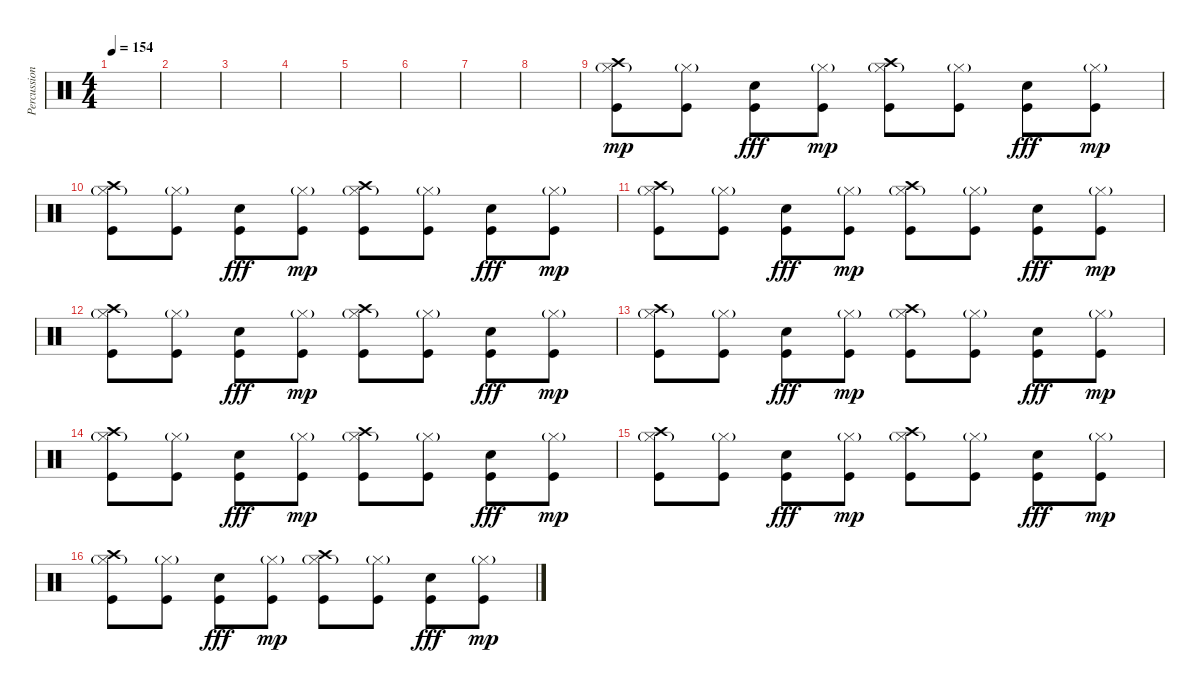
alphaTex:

\track ("Percussion" "Percussion") {instrument percussion}
\staff {score}
\articulation defaults
\ts (4 4)
\tempo 154
\clef neutral
\ks c
|
|
|
|
|
|
|
|
("Kick (hit)" "Hi-Hat (closed)"{g} "Crash high (hit)").8{dy mp} ("Kick (hit)" "Hi-Hat (closed)"{g}).8 ("Kick (hit)" "Electric Snare (hit)").8{dy fff} ("Kick (hit)" "Hi-Hat (closed)"{g}).8{dy mp} ("Kick (hit)" "Hi-Hat (closed)"{g} "Crash high (hit)").8 ("Kick (hit)" "Hi-Hat (closed)"{g}).8 ("Kick (hit)" "Electric Snare (hit)").8{dy fff} ("Kick (hit)" "Hi-Hat (closed)"{g}).8{dy mp} |
("Kick (hit)" "Hi-Hat (closed)"{g} "Crash high (hit)").8 ("Kick (hit)" "Hi-Hat (closed)"{g}).8 ("Kick (hit)" "Electric Snare (hit)").8{dy fff} ("Kick (hit)" "Hi-Hat (closed)"{g}).8{dy mp} ("Kick (hit)" "Hi-Hat (closed)"{g} "Crash high (hit)").8 ("Kick (hit)" "Hi-Hat (closed)"{g}).8 ("Kick (hit)" "Electric Snare (hit)").8{dy fff} ("Kick (hit)" "Hi-Hat (closed)"{g}).8{dy mp} |
("Kick (hit)" "Hi-Hat (closed)"{g} "Crash high (hit)").8 ("Kick (hit)" "Hi-Hat (closed)"{g}).8 ("Kick (hit)" "Electric Snare (hit)").8{dy fff} ("Kick (hit)" "Hi-Hat (closed)"{g}).8{dy mp} ("Kick (hit)" "Hi-Hat (closed)"{g} "Crash high (hit)").8 ("Kick (hit)" "Hi-Hat (closed)"{g}).8 ("Kick (hit)" "Electric Snare (hit)").8{dy fff} ("Kick (hit)" "Hi-Hat (closed)"{g}).8{dy mp} |
("Kick (hit)" "Hi-Hat (closed)"{g} "Crash high (hit)").8 ("Kick (hit)" "Hi-Hat (closed)"{g}).8 ("Kick (hit)" "Electric Snare (hit)").8{dy fff} ("Kick (hit)" "Hi-Hat (closed)"{g}).8{dy mp} ("Kick (hit)" "Hi-Hat (closed)"{g} "Crash high (hit)").8 ("Kick (hit)" "Hi-Hat (closed)"{g}).8 ("Kick (hit)" "Electric Snare (hit)").8{dy fff} ("Kick (hit)" "Hi-Hat (closed)"{g}).8{dy mp} |
("Kick (hit)" "Hi-Hat (closed)"{g} "Crash high (hit)").8 ("Kick (hit)" "Hi-Hat (closed)"{g}).8 ("Kick (hit)" "Electric Snare (hit)").8{dy fff} ("Kick (hit)" "Hi-Hat (closed)"{g}).8{dy mp} ("Kick (hit)" "Hi-Hat (closed)"{g} "Crash high (hit)").8 ("Kick (hit)" "Hi-Hat (closed)"{g}).8 ("Kick (hit)" "Electric Snare (hit)").8{dy fff} ("Kick (hit)" "Hi-Hat (closed)"{g}).8{dy mp} |
("Kick (hit)" "Hi-Hat (closed)"{g} "Crash high (hit)").8 ("Kick (hit)" "Hi-Hat (closed)"{g}).8 ("Kick (hit)" "Electric Snare (hit)").8{dy fff} ("Kick (hit)" "Hi-Hat (closed)"{g}).8{dy mp} ("Kick (hit)" "Hi-Hat (closed)"{g} "Crash high (hit)").8 ("Kick (hit)" "Hi-Hat (closed)"{g}).8 ("Kick (hit)" "Electric Snare (hit)").8{dy fff} ("Kick (hit)" "Hi-Hat (closed)"{g}).8{dy mp} |
("Kick (hit)" "Hi-Hat (closed)"{g} "Crash high (hit)").8 ("Kick (hit)" "Hi-Hat (closed)"{g}).8 ("Kick (hit)" "Electric Snare (hit)").8{dy fff} ("Kick (hit)" "Hi-Hat (closed)"{g}).8{dy mp} ("Kick (hit)" "Hi-Hat (closed)"{g} "Crash high (hit)").8 ("Kick (hit)" "Hi-Hat (closed)"{g}).8 ("Kick (hit)" "Electric Snare (hit)").8{dy fff} ("Kick (hit)" "Hi-Hat (closed)"{g}).8{dy mp} |
("Kick (hit)" "Hi-Hat (closed)"{g} "Crash high (hit)").8 ("Kick (hit)" "Hi-Hat (closed)"{g}).8 ("Kick (hit)" "Electric Snare (hit)").8{dy fff} ("Kick (hit)" "Hi-Hat (closed)"{g}).8{dy mp} ("Kick (hit)" "Hi-Hat (closed)"{g} "Crash high (hit)").8 ("Kick (hit)" "Hi-Hat (closed)"{g}).8 ("Kick (hit)" "Electric Snare (hit)").8{dy fff} ("Kick (hit)" "Hi-Hat (closed)"{g}).8{dy mp}
